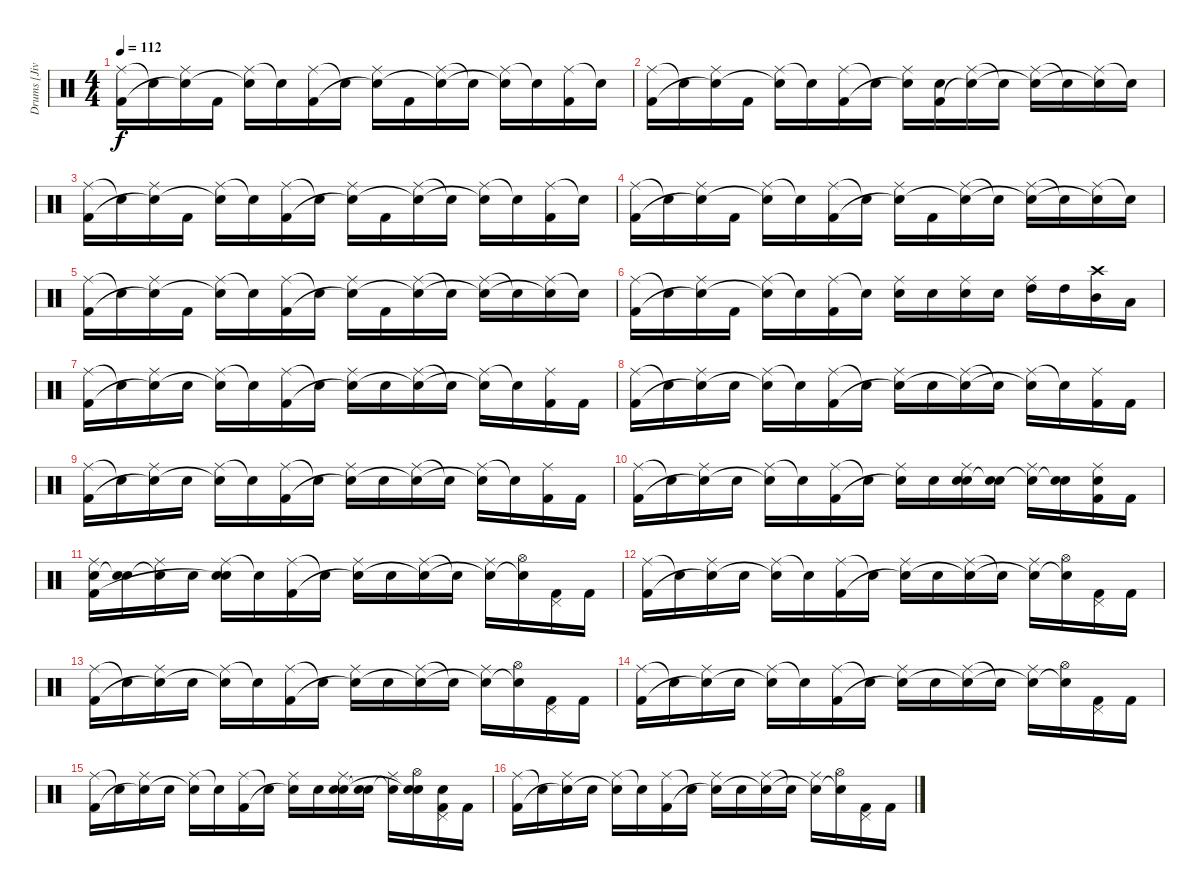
\track ("Drums [Jivarp]" "Drums [Jiv") {instrument percussion}
\staff {score}
\articulation defaults
\ts (4 4)
\tempo 112
\clef neutral
\ks c
("Ride (middle)" "Kick (hit) 2").16{dy f} "Snare (hit)"{t}.16 ("Ride (middle)" "Snare (hit)"{t}).16 "Kick (hit) 2".16 ("Ride (middle)" "Snare (hit)"{t}).16 "Snare (hit)"{t}.16 ("Ride (middle)" "Kick (hit) 2").16 "Snare (hit)"{t}.16 ("Ride (middle)" "Snare (hit)"{t}).16 "Kick (hit) 2".16 ("Ride (middle)" "Snare (hit)"{t}).16 "Snare (hit)"{t}.16 ("Ride (middle)" "Snare (hit)"{t}).16 "Snare (hit)"{t}.16 ("Ride (middle)" "Kick (hit) 2").16 "Snare (hit)"{t}.16 |
("Ride (middle)" "Kick (hit) 2").16 "Snare (hit)"{t}.16 ("Ride (middle)" "Snare (hit)"{t}).16 "Kick (hit) 2".16 ("Ride (middle)" "Snare (hit)"{t}).16 "Snare (hit)"{t}.16 ("Ride (middle)" "Kick (hit) 2").16 "Snare (hit)"{t}.16 ("Ride (middle)" "Snare (hit)"{t}).16 ("Electric Snare (hit)" "Kick (hit) 2").16 ("Ride (middle)" "Snare (hit)"{t}).16 "Snare (hit)"{t}.16 ("Ride (middle)" "Snare (hit)"{t}).16 "Snare (hit)"{t}.16 ("Ride (middle)" "Snare (hit)"{t}).16 "Snare (hit)"{t}.16 |
("Ride (middle)" "Kick (hit) 2").16 "Snare (hit)"{t}.16 ("Ride (middle)" "Snare (hit)"{t}).16 "Kick (hit) 2".16 ("Ride (middle)" "Snare (hit)"{t}).16 "Snare (hit)"{t}.16 ("Ride (middle)" "Kick (hit) 2").16 "Snare (hit)"{t}.16 ("Ride (middle)" "Snare (hit)"{t}).16 "Kick (hit) 2".16 ("Ride (middle)" "Snare (hit)"{t}).16 "Snare (hit)"{t}.16 ("Ride (middle)" "Snare (hit)"{t}).16 "Snare (hit)"{t}.16 ("Ride (middle)" "Kick (hit) 2").16 "Snare (hit)"{t}.16 |
("Ride (middle)" "Kick (hit) 2").16 "Snare (hit)"{t}.16 ("Ride (middle)" "Snare (hit)"{t}).16 "Kick (hit) 2".16 ("Ride (middle)" "Snare (hit)"{t}).16 "Snare (hit)"{t}.16 ("Ride (middle)" "Kick (hit) 2").16 "Snare (hit)"{t}.16 ("Ride (middle)" "Snare (hit)"{t}).16 "Kick (hit) 2".16 ("Ride (middle)" "Snare (hit)"{t}).16 "Snare (hit)"{t}.16 ("Ride (middle)" "Snare (hit)"{t}).16 "Snare (hit)"{t}.16 ("Ride (middle)" "Snare (hit)"{t}).16 "Snare (hit)"{t}.16 |
("Ride (middle)" "Kick (hit) 2").16 "Snare (hit)"{t}.16 ("Ride (middle)" "Snare (hit)"{t}).16 "Kick (hit) 2".16 ("Ride (middle)" "Snare (hit)"{t}).16 "Snare (hit)"{t}.16 ("Ride (middle)" "Kick (hit) 2").16 "Snare (hit)"{t}.16 ("Ride (middle)" "Snare (hit)"{t}).16 "Kick (hit) 2".16 ("Ride (middle)" "Snare (hit)"{t}).16 "Snare (hit)"{t}.16 ("Ride (middle)" "Snare (hit)"{t}).16 "Snare (hit)"{t}.16 ("Ride (middle)" "Snare (hit)"{t}).16 "Snare (hit)"{t}.16 |
("Ride (middle)" "Kick (hit) 2").16 "Snare (hit)"{t}.16 ("Ride (middle)" "Snare (hit)"{t}).16 "Kick (hit) 2".16 ("Ride (middle)" "Snare (hit)"{t}).16 "Snare (hit)"{t}.16 ("Ride (middle)" "Kick (hit) 2").16 "Snare (hit)"{t}.16 ("Ride (middle)" "Electric Snare (hit)").16 "Electric Snare (hit)".16 ("Ride (middle)" "Electric Snare (hit)").16 "Electric Snare (hit)".16 ("Ride (middle)" "High Tom (hit)").16 "High Tom (hit)".16 ("Crash high (hit)" "Mid Tom (hit)").16 "Low Tom (hit)".16 |
("Ride (middle)" "Kick (hit) 2").16 "Snare (hit)"{t}.16 ("Ride (middle)" "Snare (hit)"{t}).16 "Electric Snare (hit)".16 ("Ride (middle)" "Snare (hit)"{t}).16 "Snare (hit)"{t}.16 ("Ride (middle)" "Kick (hit) 2").16 "Snare (hit)"{t}.16 ("Ride (middle)" "Snare (hit)"{t}).16 "Electric Snare (hit)".16 ("Ride (middle)" "Snare (hit)"{t}).16 "Snare (hit)"{t}.16 ("Ride (middle)" "Snare (hit)"{t}).16 "Snare (hit)"{t}.16 ("Ride (middle)" "Kick (hit) 2").16 "Kick (hit) 2".16 |
("Ride (middle)" "Kick (hit) 2").16 "Snare (hit)"{t}.16 ("Ride (middle)" "Snare (hit)"{t}).16 "Electric Snare (hit)".16 ("Ride (middle)" "Snare (hit)"{t}).16 "Snare (hit)"{t}.16 ("Ride (middle)" "Kick (hit) 2").16 "Snare (hit)"{t}.16 ("Ride (middle)" "Snare (hit)"{t}).16 "Electric Snare (hit)".16 ("Ride (middle)" "Snare (hit)"{t}).16 "Snare (hit)"{t}.16 ("Ride (middle)" "Snare (hit)"{t}).16 "Snare (hit)"{t}.16 ("Ride (middle)" "Kick (hit) 2").16 "Kick (hit) 2".16 |
("Ride (middle)" "Kick (hit) 2").16 "Snare (hit)"{t}.16 ("Ride (middle)" "Snare (hit)"{t}).16 "Electric Snare (hit)".16 ("Ride (middle)" "Snare (hit)"{t}).16 "Snare (hit)"{t}.16 ("Ride (middle)" "Kick (hit) 2").16 "Snare (hit)"{t}.16 ("Ride (middle)" "Snare (hit)"{t}).16 "Electric Snare (hit)".16 ("Ride (middle)" "Snare (hit)"{t}).16 "Snare (hit)"{t}.16 ("Ride (middle)" "Snare (hit)"{t}).16 "Snare (hit)"{t}.16 ("Ride (middle)" "Kick (hit) 2").16 "Kick (hit) 2".16 |
("Ride (middle)" "Kick (hit) 2").16 "Snare (hit)"{t}.16 ("Ride (middle)" "Snare (hit)"{t}).16 "Electric Snare (hit)".16 ("Ride (middle)" "Snare (hit)"{t}).16 "Snare (hit)"{t}.16 ("Ride (middle)" "Kick (hit) 2").16 "Snare (hit)"{t}.16 ("Ride (middle)" "Snare (hit)"{t}).16 "Electric Snare (hit)".16 ("Ride (middle)" "Electric Snare (hit)" "Snare (hit)").16 ("Electric Snare (hit)" "Snare (hit)"{t}).16 ("Ride (middle)" "Snare (hit)"{t}).16 ("Electric Snare (hit)" "Snare (hit)"{t}).16 ("Ride (middle)" "Electric Snare (hit)" "Kick (hit) 2").16 "Kick (hit) 2".16 |
("Ride (middle)" "Electric Snare (hit)" "Kick (hit) 2").16 ("Electric Snare (hit)" "Snare (hit)"{t}).16 ("Ride (middle)" "Snare (hit)"{t}).16 "Electric Snare (hit)".16 ("Ride (middle)" "Electric Snare (hit)" "Snare (hit)"{t}).16 "Snare (hit)"{t}.16 ("Ride (middle)" "Kick (hit) 2").16 "Snare (hit)"{t}.16 ("Ride (middle)" "Snare (hit)"{t}).16 "Electric Snare (hit)".16 ("Ride (middle)" "Snare (hit)"{t}).16 "Snare (hit)"{t}.16 ("Ride (middle)" "Snare (hit)"{t}).16 ("Hi-Hat (open)" "Snare (hit)"{t}).16 ("Pedal Hi-Hat (hit)" "Kick (hit) 2").16 "Kick (hit) 2".16 |
("Ride (middle)" "Kick (hit) 2").16 "Snare (hit)"{t}.16 ("Ride (middle)" "Snare (hit)"{t}).16 "Electric Snare (hit)".16 ("Ride (middle)" "Snare (hit)"{t}).16 "Snare (hit)"{t}.16 ("Ride (middle)" "Kick (hit) 2").16 "Snare (hit)"{t}.16 ("Ride (middle)" "Snare (hit)"{t}).16 "Electric Snare (hit)".16 ("Ride (middle)" "Snare (hit)"{t}).16 "Snare (hit)"{t}.16 ("Ride (middle)" "Snare (hit)"{t}).16 ("Hi-Hat (open)" "Snare (hit)"{t}).16 ("Pedal Hi-Hat (hit)" "Kick (hit) 2").16 "Kick (hit) 2".16 |
("Ride (middle)" "Kick (hit) 2").16 "Snare (hit)"{t}.16 ("Ride (middle)" "Snare (hit)"{t}).16 "Electric Snare (hit)".16 ("Ride (middle)" "Snare (hit)"{t}).16 "Snare (hit)"{t}.16 ("Ride (middle)" "Kick (hit) 2").16 "Snare (hit)"{t}.16 ("Ride (middle)" "Snare (hit)"{t}).16 "Electric Snare (hit)".16 ("Ride (middle)" "Snare (hit)"{t}).16 "Snare (hit)"{t}.16 ("Ride (middle)" "Snare (hit)"{t}).16 ("Hi-Hat (open)" "Snare (hit)"{t}).16 ("Pedal Hi-Hat (hit)" "Kick (hit) 2").16 "Kick (hit) 2".16 |
("Ride (middle)" "Kick (hit) 2").16 "Snare (hit)"{t}.16 ("Ride (middle)" "Snare (hit)"{t}).16 "Electric Snare (hit)".16 ("Ride (middle)" "Snare (hit)"{t}).16 "Snare (hit)"{t}.16 ("Ride (middle)" "Kick (hit) 2").16 "Snare (hit)"{t}.16 ("Ride (middle)" "Snare (hit)"{t}).16 "Electric Snare (hit)".16 ("Ride (middle)" "Snare (hit)"{t}).16 "Snare (hit)"{t}.16 ("Ride (middle)" "Snare (hit)"{t}).16 ("Hi-Hat (open)" "Snare (hit)"{t}).16 ("Pedal Hi-Hat (hit)" "Kick (hit) 2").16 "Kick (hit) 2".16 |
("Ride (middle)" "Kick (hit) 2").16 "Snare (hit)"{t}.16 ("Ride (middle)" "Snare (hit)"{t}).16 "Electric Snare (hit)".16 ("Ride (middle)" "Snare (hit)"{t}).16 "Snare (hit)"{t}.16 ("Ride (middle)" "Kick (hit) 2").16 "Snare (hit)"{t}.16 ("Ride (middle)" "Snare (hit)"{t}).16 "Electric Snare (hit)".16 ("Ride (middle)" "Electric Snare (hit)" "Snare (hit)").16 ("Electric Snare (hit)" "Snare (hit)"{t}).16 ("Ride (middle)" "Snare (hit)"{t}).16 ("Hi-Hat (open)" "Electric Snare (hit)" "Snare (hit)"{t}).16 ("Pedal Hi-Hat (hit)" "Electric Snare (hit)" "Kick (hit) 2").16 "Kick (hit) 2".16 |
("Ride (middle)" "Kick (hit) 2").16 "Snare (hit)"{t}.16 ("Ride (middle)" "Snare (hit)"{t}).16 "Electric Snare (hit)".16 ("Ride (middle)" "Snare (hit)"{t}).16 "Snare (hit)"{t}.16 ("Ride (middle)" "Kick (hit) 2").16 "Snare (hit)"{t}.16 ("Ride (middle)" "Snare (hit)"{t}).16 "Electric Snare (hit)".16 ("Ride (middle)" "Snare (hit)"{t}).16 "Snare (hit)"{t}.16 ("Ride (middle)" "Snare (hit)"{t}).16 ("Hi-Hat (open)" "Snare (hit)"{t}).16 ("Pedal Hi-Hat (hit)" "Kick (hit) 2").16 "Kick (hit) 2".16
